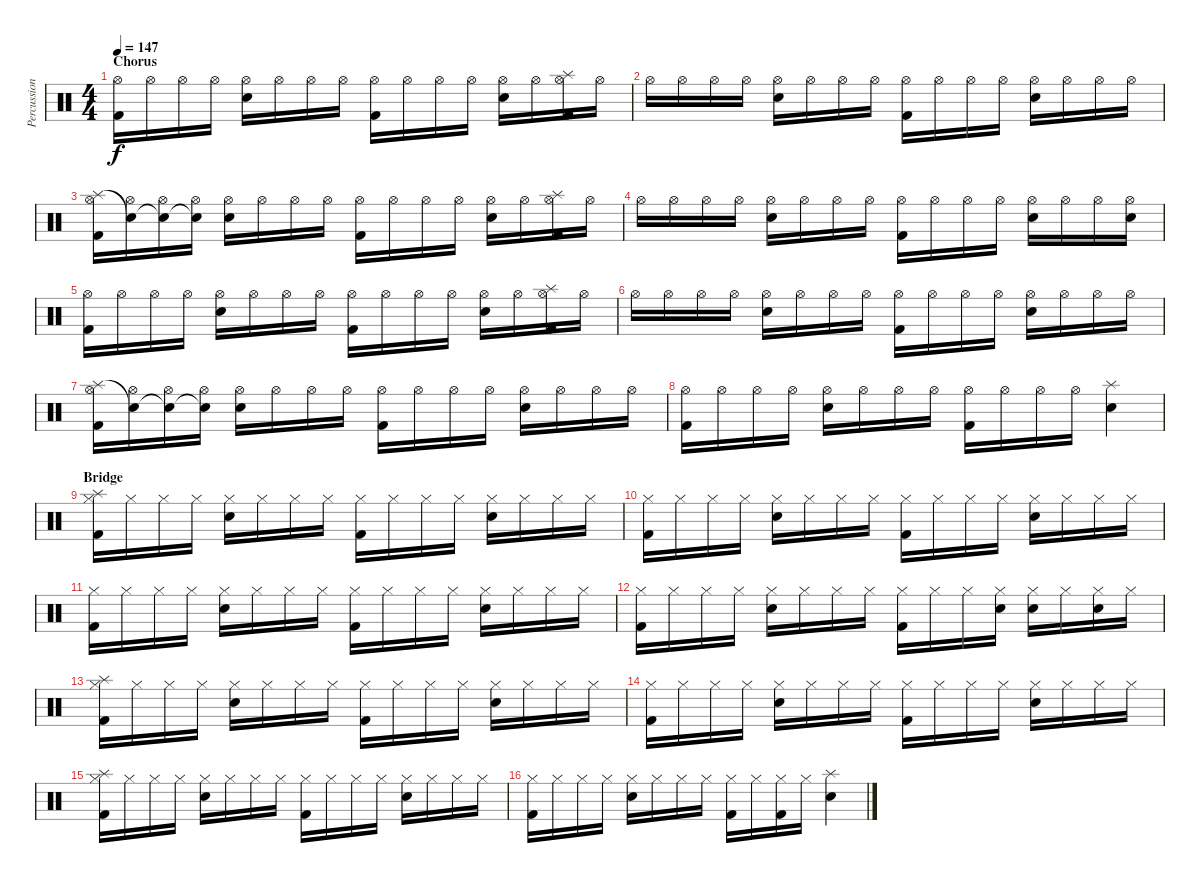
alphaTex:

\track ("Percussion" "Percussion") {instrument percussion}
\staff {score}
\articulation defaults
\ts (4 4)
\section ("" "Chorus")
\tempo 147
\clef neutral
\ks c
("Hi-Hat (open)" "Kick (hit) 2").16{dy f} "Hi-Hat (open)".16 "Hi-Hat (open)".16 "Hi-Hat (open)".16 ("Hi-Hat (open)" "Snare (hit) 2").16 "Hi-Hat (open)".16 "Hi-Hat (open)".16 "Hi-Hat (open)".16 ("Hi-Hat (open)" "Kick (hit) 2").16 "Hi-Hat (open)".16 "Hi-Hat (open)".16 "Hi-Hat (open)".16 ("Hi-Hat (open)" "Snare (hit) 2").16 "Hi-Hat (open)".16 ("Hi-Hat (open)" "Splash (hit)" "Kick (hit) 2").16 "Hi-Hat (open)".16 |
"Hi-Hat (open)".16 "Hi-Hat (open)".16 "Hi-Hat (open)".16 "Hi-Hat (open)".16 ("Hi-Hat (open)" "Snare (hit) 2").16 "Hi-Hat (open)".16 "Hi-Hat (open)".16 "Hi-Hat (open)".16 ("Hi-Hat (open)" "Kick (hit) 2").16 "Hi-Hat (open)".16 "Hi-Hat (open)".16 "Hi-Hat (open)".16 ("Hi-Hat (open)" "Snare (hit) 2").16 "Hi-Hat (open)".16 "Hi-Hat (open)".16 "Hi-Hat (open)".16 |
("Hi-Hat (open)" "Splash (hit)" "Kick (hit) 2").16 ("Hi-Hat (open)" "Snare (hit)"{t}).16 ("Hi-Hat (open)" "Snare (hit)"{t}).16 ("Hi-Hat (open)" "Snare (hit)"{t}).16 ("Hi-Hat (open)" "Snare (hit) 2").16 "Hi-Hat (open)".16 "Hi-Hat (open)".16 "Hi-Hat (open)".16 ("Hi-Hat (open)" "Kick (hit) 2").16 "Hi-Hat (open)".16 "Hi-Hat (open)".16 "Hi-Hat (open)".16 ("Hi-Hat (open)" "Snare (hit) 2").16 "Hi-Hat (open)".16 ("Hi-Hat (open)" "Splash (hit)" "Kick (hit) 2").16 "Hi-Hat (open)".16 |
"Hi-Hat (open)".16 "Hi-Hat (open)".16 "Hi-Hat (open)".16 "Hi-Hat (open)".16 ("Hi-Hat (open)" "Snare (hit) 2").16 "Hi-Hat (open)".16 "Hi-Hat (open)".16 "Hi-Hat (open)".16 ("Hi-Hat (open)" "Kick (hit) 2").16 "Hi-Hat (open)".16 "Hi-Hat (open)".16 "Hi-Hat (open)".16 ("Hi-Hat (open)" "Snare (hit) 2").16 "Hi-Hat (open)".16 "Hi-Hat (open)".16 ("Hi-Hat (open)" "Snare (hit) 2").16 |
("Hi-Hat (open)" "Kick (hit) 2").16 "Hi-Hat (open)".16 "Hi-Hat (open)".16 "Hi-Hat (open)".16 ("Hi-Hat (open)" "Snare (hit) 2").16 "Hi-Hat (open)".16 "Hi-Hat (open)".16 "Hi-Hat (open)".16 ("Hi-Hat (open)" "Kick (hit) 2").16 "Hi-Hat (open)".16 "Hi-Hat (open)".16 "Hi-Hat (open)".16 ("Hi-Hat (open)" "Snare (hit) 2").16 "Hi-Hat (open)".16 ("Hi-Hat (open)" "Splash (hit)" "Kick (hit) 2").16 "Hi-Hat (open)".16 |
"Hi-Hat (open)".16 "Hi-Hat (open)".16 "Hi-Hat (open)".16 "Hi-Hat (open)".16 ("Hi-Hat (open)" "Snare (hit) 2").16 "Hi-Hat (open)".16 "Hi-Hat (open)".16 "Hi-Hat (open)".16 ("Hi-Hat (open)" "Kick (hit) 2").16 "Hi-Hat (open)".16 "Hi-Hat (open)".16 "Hi-Hat (open)".16 ("Hi-Hat (open)" "Snare (hit) 2").16 "Hi-Hat (open)".16 "Hi-Hat (open)".16 "Hi-Hat (open)".16 |
("Hi-Hat (open)" "Splash (hit)" "Kick (hit) 2").16 ("Hi-Hat (open)" "Snare (hit)"{t}).16 ("Hi-Hat (open)" "Snare (hit)"{t}).16 ("Hi-Hat (open)" "Snare (hit)"{t}).16 ("Hi-Hat (open)" "Snare (hit) 2").16 "Hi-Hat (open)".16 "Hi-Hat (open)".16 "Hi-Hat (open)".16 ("Hi-Hat (open)" "Kick (hit) 2").16 "Hi-Hat (open)".16 "Hi-Hat (open)".16 "Hi-Hat (open)".16 ("Hi-Hat (open)" "Snare (hit) 2").16 "Hi-Hat (open)".16 "Hi-Hat (open)".16 "Hi-Hat (open)".16 |
("Hi-Hat (open)" "Kick (hit) 2").16 "Hi-Hat (open)".16 "Hi-Hat (open)".16 "Hi-Hat (open)".16 ("Hi-Hat (open)" "Snare (hit) 2").16 "Hi-Hat (open)".16 "Hi-Hat (open)".16 "Hi-Hat (open)".16 ("Hi-Hat (open)" "Kick (hit) 2").16 "Hi-Hat (open)".16 "Hi-Hat (open)".16 "Hi-Hat (open)".16 ("Splash (hit)" "Snare (hit) 2").4 |
\section ("" "Bridge")
("Hi-Hat (closed)" "Splash (hit)" "Kick (hit) 2").16 "Hi-Hat (closed)".16 "Hi-Hat (closed)".16 "Hi-Hat (closed)".16 ("Hi-Hat (closed)" "Snare (hit) 2").16 "Hi-Hat (closed)".16 "Hi-Hat (closed)".16 "Hi-Hat (closed)".16 ("Hi-Hat (closed)" "Kick (hit) 2").16 "Hi-Hat (closed)".16 "Hi-Hat (closed)".16 "Hi-Hat (closed)".16 ("Hi-Hat (closed)" "Snare (hit) 2").16 "Hi-Hat (closed)".16 "Hi-Hat (closed)".16 "Hi-Hat (closed)".16 |
("Hi-Hat (closed)" "Kick (hit) 2").16 "Hi-Hat (closed)".16 "Hi-Hat (closed)".16 "Hi-Hat (closed)".16 ("Hi-Hat (closed)" "Snare (hit) 2").16 "Hi-Hat (closed)".16 "Hi-Hat (closed)".16 "Hi-Hat (closed)".16 ("Hi-Hat (closed)" "Kick (hit) 2").16 "Hi-Hat (closed)".16 "Hi-Hat (closed)".16 "Hi-Hat (closed)".16 ("Hi-Hat (closed)" "Snare (hit) 2").16 "Hi-Hat (closed)".16 "Hi-Hat (closed)".16 "Hi-Hat (closed)".16 |
("Hi-Hat (closed)" "Kick (hit) 2").16 "Hi-Hat (closed)".16 "Hi-Hat (closed)".16 "Hi-Hat (closed)".16 ("Hi-Hat (closed)" "Snare (hit) 2").16 "Hi-Hat (closed)".16 "Hi-Hat (closed)".16 "Hi-Hat (closed)".16 ("Hi-Hat (closed)" "Kick (hit) 2").16 "Hi-Hat (closed)".16 "Hi-Hat (closed)".16 "Hi-Hat (closed)".16 ("Hi-Hat (closed)" "Snare (hit) 2").16 "Hi-Hat (closed)".16 "Hi-Hat (closed)".16 "Hi-Hat (closed)".16 |
("Hi-Hat (closed)" "Kick (hit) 2").16 "Hi-Hat (closed)".16 "Hi-Hat (closed)".16 "Hi-Hat (closed)".16 ("Hi-Hat (closed)" "Snare (hit) 2").16 "Hi-Hat (closed)".16 "Hi-Hat (closed)".16 "Hi-Hat (closed)".16 ("Hi-Hat (closed)" "Kick (hit) 2").16 "Hi-Hat (closed)".16 "Hi-Hat (closed)".16 ("Hi-Hat (closed)" "Snare (hit) 2").16 ("Hi-Hat (closed)" "Snare (hit) 2").16 "Hi-Hat (closed)".16 ("Hi-Hat (closed)" "Snare (hit) 2").16 "Hi-Hat (closed)".16 |
("Hi-Hat (closed)" "Splash (hit)" "Kick (hit) 2").16 "Hi-Hat (closed)".16 "Hi-Hat (closed)".16 "Hi-Hat (closed)".16 ("Hi-Hat (closed)" "Snare (hit) 2").16 "Hi-Hat (closed)".16 "Hi-Hat (closed)".16 "Hi-Hat (closed)".16 ("Hi-Hat (closed)" "Kick (hit) 2").16 "Hi-Hat (closed)".16 "Hi-Hat (closed)".16 "Hi-Hat (closed)".16 ("Hi-Hat (closed)" "Snare (hit) 2").16 "Hi-Hat (closed)".16 "Hi-Hat (closed)".16 "Hi-Hat (closed)".16 |
("Hi-Hat (closed)" "Kick (hit) 2").16 "Hi-Hat (closed)".16 "Hi-Hat (closed)".16 "Hi-Hat (closed)".16 ("Hi-Hat (closed)" "Snare (hit) 2").16 "Hi-Hat (closed)".16 "Hi-Hat (closed)".16 "Hi-Hat (closed)".16 ("Hi-Hat (closed)" "Kick (hit) 2").16 "Hi-Hat (closed)".16 "Hi-Hat (closed)".16 "Hi-Hat (closed)".16 ("Hi-Hat (closed)" "Snare (hit) 2").16 "Hi-Hat (closed)".16 "Hi-Hat (closed)".16 "Hi-Hat (closed)".16 |
("Hi-Hat (closed)" "Splash (hit)" "Kick (hit) 2").16 "Hi-Hat (closed)".16 "Hi-Hat (closed)".16 "Hi-Hat (closed)".16 ("Hi-Hat (closed)" "Snare (hit) 2").16 "Hi-Hat (closed)".16 "Hi-Hat (closed)".16 "Hi-Hat (closed)".16 ("Hi-Hat (closed)" "Kick (hit) 2").16 "Hi-Hat (closed)".16 "Hi-Hat (closed)".16 "Hi-Hat (closed)".16 ("Hi-Hat (closed)" "Snare (hit) 2").16 "Hi-Hat (closed)".16 "Hi-Hat (closed)".16 "Hi-Hat (closed)".16 |
("Hi-Hat (closed)" "Kick (hit) 2").16 "Hi-Hat (closed)".16 "Hi-Hat (closed)".16 "Hi-Hat (closed)".16 ("Hi-Hat (closed)" "Snare (hit) 2").16 "Hi-Hat (closed)".16 "Hi-Hat (closed)".16 "Hi-Hat (closed)".16 ("Hi-Hat (closed)" "Kick (hit) 2").16 "Hi-Hat (closed)".16 ("Hi-Hat (closed)" "Kick (hit) 2").16 "Hi-Hat (closed)".16 ("Splash (hit)" "Snare (hit) 2").4
